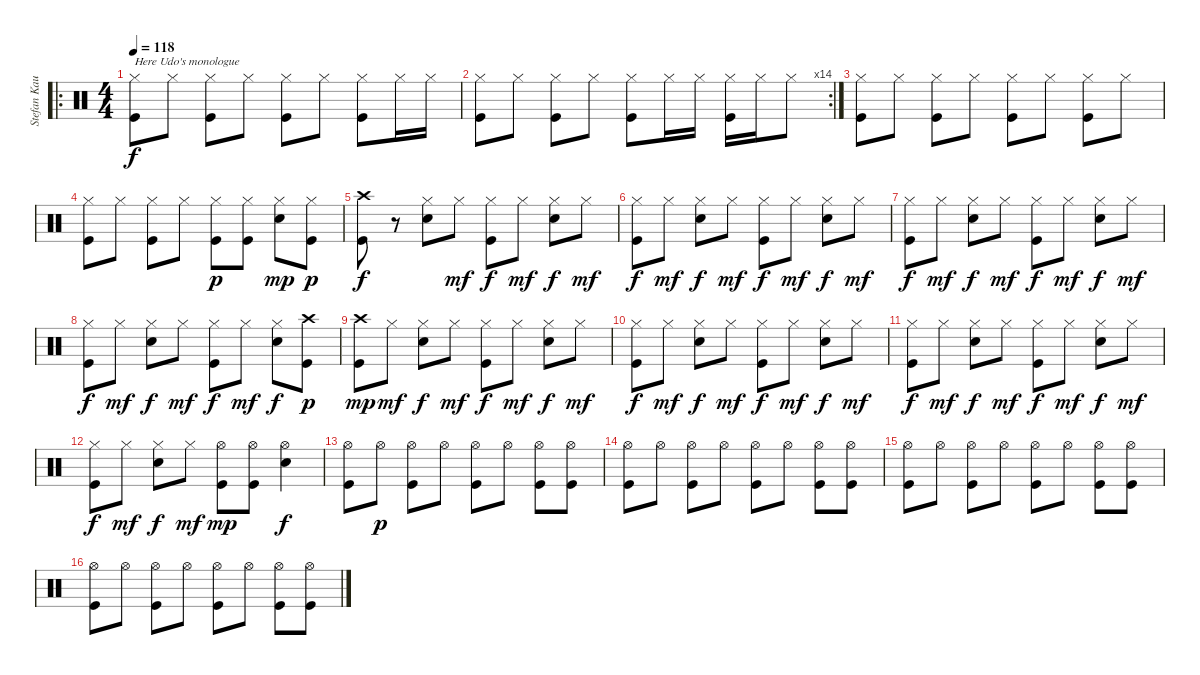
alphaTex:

\track ("Stefan Kaufmann" "Stefan Kau") {instrument percussion}
\staff {score}
\articulation defaults
\ro
\ts (4 4)
\tempo 118
\clef neutral
\ks c
("Hi-Hat (closed)" "Kick (hit)").8{txt "Here Udo's monologue" dy f} "Hi-Hat (closed)".8 ("Hi-Hat (closed)" "Kick (hit)").8 "Hi-Hat (closed)".8 ("Hi-Hat (closed)" "Kick (hit)").8 "Hi-Hat (closed)".8 ("Hi-Hat (closed)" "Kick (hit)").8 "Hi-Hat (closed)".16 "Hi-Hat (closed)".16 |
\rc 14
("Hi-Hat (closed)" "Kick (hit)").8 "Hi-Hat (closed)".8 ("Hi-Hat (closed)" "Kick (hit)").8 "Hi-Hat (closed)".8 ("Hi-Hat (closed)" "Kick (hit)").8 "Hi-Hat (closed)".16 "Hi-Hat (closed)".16 ("Hi-Hat (closed)" "Kick (hit)").16 "Hi-Hat (closed)".16 "Hi-Hat (closed)".8 |
("Hi-Hat (closed)" "Kick (hit)").8 "Hi-Hat (closed)".8 ("Hi-Hat (closed)" "Kick (hit)").8 "Hi-Hat (closed)".8 ("Hi-Hat (closed)" "Kick (hit)").8 "Hi-Hat (closed)".8 ("Hi-Hat (closed)" "Kick (hit)").8 "Hi-Hat (closed)".8 |
("Hi-Hat (closed)" "Kick (hit)").8 "Hi-Hat (closed)".8 ("Hi-Hat (closed)" "Kick (hit)").8 "Hi-Hat (closed)".8 ("Hi-Hat (closed)" "Kick (hit)").8{dy p} ("Hi-Hat (closed)" "Kick (hit)").8 ("Hi-Hat (closed)" "Snare (hit) 2").8{dy mp} ("Hi-Hat (closed)" "Kick (hit)").8{dy p} |
("Crash high (hit)" "Kick (hit)").8{dy f} r.8 ("Hi-Hat (closed)" "Snare (hit) 2").8 "Hi-Hat (closed)".8{dy mf} ("Hi-Hat (closed)" "Kick (hit)").8{dy f} "Hi-Hat (closed)".8{dy mf} ("Hi-Hat (closed)" "Snare (hit) 2").8{dy f} "Hi-Hat (closed)".8{dy mf} |
("Hi-Hat (closed)" "Kick (hit)").8{dy f} "Hi-Hat (closed)".8{dy mf} ("Hi-Hat (closed)" "Snare (hit) 2").8{dy f} "Hi-Hat (closed)".8{dy mf} ("Hi-Hat (closed)" "Kick (hit)").8{dy f} "Hi-Hat (closed)".8{dy mf} ("Hi-Hat (closed)" "Snare (hit) 2").8{dy f} "Hi-Hat (closed)".8{dy mf} |
("Hi-Hat (closed)" "Kick (hit)").8{dy f} "Hi-Hat (closed)".8{dy mf} ("Hi-Hat (closed)" "Snare (hit) 2").8{dy f} "Hi-Hat (closed)".8{dy mf} ("Hi-Hat (closed)" "Kick (hit)").8{dy f} "Hi-Hat (closed)".8{dy mf} ("Hi-Hat (closed)" "Snare (hit) 2").8{dy f} "Hi-Hat (closed)".8{dy mf} |
("Hi-Hat (closed)" "Kick (hit)").8{dy f} "Hi-Hat (closed)".8{dy mf} ("Hi-Hat (closed)" "Snare (hit) 2").8{dy f} "Hi-Hat (closed)".8{dy mf} ("Hi-Hat (closed)" "Kick (hit)").8{dy f} "Hi-Hat (closed)".8{dy mf} ("Hi-Hat (closed)" "Snare (hit) 2").8{dy f} ("Crash high (hit)" "Kick (hit)").8{dy p} |
("Crash high (hit)" "Kick (hit)").8{dy mp} "Hi-Hat (closed)".8{dy mf} ("Hi-Hat (closed)" "Snare (hit) 2").8{dy f} "Hi-Hat (closed)".8{dy mf} ("Hi-Hat (closed)" "Kick (hit)").8{dy f} "Hi-Hat (closed)".8{dy mf} ("Hi-Hat (closed)" "Snare (hit) 2").8{dy f} "Hi-Hat (closed)".8{dy mf} |
("Hi-Hat (closed)" "Kick (hit)").8{dy f} "Hi-Hat (closed)".8{dy mf} ("Hi-Hat (closed)" "Snare (hit) 2").8{dy f} "Hi-Hat (closed)".8{dy mf} ("Hi-Hat (closed)" "Kick (hit)").8{dy f} "Hi-Hat (closed)".8{dy mf} ("Hi-Hat (closed)" "Snare (hit) 2").8{dy f} "Hi-Hat (closed)".8{dy mf} |
("Hi-Hat (closed)" "Kick (hit)").8{dy f} "Hi-Hat (closed)".8{dy mf} ("Hi-Hat (closed)" "Snare (hit) 2").8{dy f} "Hi-Hat (closed)".8{dy mf} ("Hi-Hat (closed)" "Kick (hit)").8{dy f} "Hi-Hat (closed)".8{dy mf} ("Hi-Hat (closed)" "Snare (hit) 2").8{dy f} "Hi-Hat (closed)".8{dy mf} |
("Hi-Hat (closed)" "Kick (hit)").8{dy f} "Hi-Hat (closed)".8{dy mf} ("Hi-Hat (closed)" "Snare (hit) 2").8{dy f} "Hi-Hat (closed)".8{dy mf} ("Hi-Hat (open)" "Kick (hit)").8{dy mp} ("Hi-Hat (open)" "Kick (hit)").8 ("Hi-Hat (open)" "Snare (hit) 2").4{dy f} |
("Hi-Hat (open)" "Kick (hit)").8 "Hi-Hat (open)".8{dy p} ("Hi-Hat (open)" "Kick (hit)").8 "Hi-Hat (open)".8 ("Hi-Hat (open)" "Kick (hit)").8 "Hi-Hat (open)".8 ("Hi-Hat (open)" "Kick (hit)").8 ("Hi-Hat (open)" "Kick (hit)").8 |
("Hi-Hat (open)" "Kick (hit)").8 "Hi-Hat (open)".8 ("Hi-Hat (open)" "Kick (hit)").8 "Hi-Hat (open)".8 ("Hi-Hat (open)" "Kick (hit)").8 "Hi-Hat (open)".8 ("Hi-Hat (open)" "Kick (hit)").8 ("Hi-Hat (open)" "Kick (hit)").8 |
("Hi-Hat (open)" "Kick (hit)").8 "Hi-Hat (open)".8 ("Hi-Hat (open)" "Kick (hit)").8 "Hi-Hat (open)".8 ("Hi-Hat (open)" "Kick (hit)").8 "Hi-Hat (open)".8 ("Hi-Hat (open)" "Kick (hit)").8 ("Hi-Hat (open)" "Kick (hit)").8 |
("Hi-Hat (open)" "Kick (hit)").8 "Hi-Hat (open)".8 ("Hi-Hat (open)" "Kick (hit)").8 "Hi-Hat (open)".8 ("Hi-Hat (open)" "Kick (hit)").8 "Hi-Hat (open)".8 ("Hi-Hat (open)" "Kick (hit)").8 ("Hi-Hat (open)" "Kick (hit)").8
